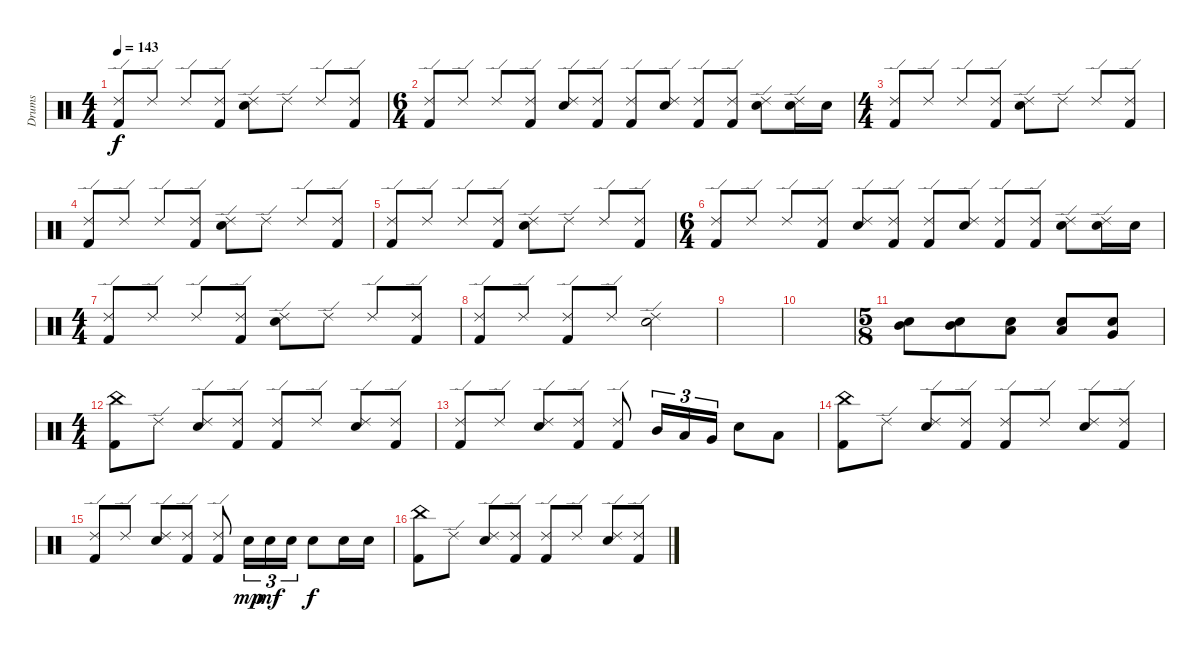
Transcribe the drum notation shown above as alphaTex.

\track ("Drums" "Drums") {instrument percussion}
\staff {score}
\articulation defaults
\ts (4 4)
\tempo 143
\clef neutral
\ks c
("Ride (edge) 2" "Kick (hit) 2").8{dy f} "Ride (edge) 2".8 "Ride (edge) 2".8 ("Ride (edge) 2" "Kick (hit) 2").8 ("Ride (edge) 2" "Electric Snare (hit)").8 "Ride (edge) 2".8 "Ride (edge) 2".8 ("Ride (edge) 2" "Kick (hit) 2").8 |
\ts (6 4)
("Ride (edge) 2" "Kick (hit) 2").8 "Ride (edge) 2".8 "Ride (edge) 2".8 ("Ride (edge) 2" "Kick (hit) 2").8 ("Ride (edge) 2" "Electric Snare (hit)").8 ("Ride (edge) 2" "Kick (hit) 2").8 ("Ride (edge) 2" "Kick (hit) 2").8 ("Ride (edge) 2" "Electric Snare (hit)").8 ("Ride (edge) 2" "Kick (hit) 2").8 ("Ride (edge) 2" "Kick (hit) 2").8 ("Ride (edge) 2" "Electric Snare (hit)").8 ("Ride (edge) 2" "Electric Snare (hit)").16 "Electric Snare (hit)".16 |
\ts (4 4)
("Ride (edge) 2" "Kick (hit) 2").8 "Ride (edge) 2".8 "Ride (edge) 2".8 ("Ride (edge) 2" "Kick (hit) 2").8 ("Ride (edge) 2" "Electric Snare (hit)").8 "Ride (edge) 2".8 "Ride (edge) 2".8 ("Ride (edge) 2" "Kick (hit) 2").8 |
("Ride (edge) 2" "Kick (hit) 2").8 "Ride (edge) 2".8 "Ride (edge) 2".8 ("Ride (edge) 2" "Kick (hit) 2").8 ("Ride (edge) 2" "Electric Snare (hit)").8 "Ride (edge) 2".8 "Ride (edge) 2".8 ("Ride (edge) 2" "Kick (hit) 2").8 |
("Ride (edge) 2" "Kick (hit) 2").8 "Ride (edge) 2".8 "Ride (edge) 2".8 ("Ride (edge) 2" "Kick (hit) 2").8 ("Ride (edge) 2" "Electric Snare (hit)").8 "Ride (edge) 2".8 "Ride (edge) 2".8 ("Ride (edge) 2" "Kick (hit) 2").8 |
\ts (6 4)
("Ride (edge) 2" "Kick (hit) 2").8 "Ride (edge) 2".8 "Ride (edge) 2".8 ("Ride (edge) 2" "Kick (hit) 2").8 ("Ride (edge) 2" "Electric Snare (hit)").8 ("Ride (edge) 2" "Kick (hit) 2").8 ("Ride (edge) 2" "Kick (hit) 2").8 ("Ride (edge) 2" "Electric Snare (hit)").8 ("Ride (edge) 2" "Kick (hit) 2").8 ("Ride (edge) 2" "Kick (hit) 2").8 ("Ride (edge) 2" "Electric Snare (hit)").8 ("Ride (edge) 2" "Electric Snare (hit)").16 "Electric Snare (hit)".16 |
\ts (4 4)
("Ride (edge) 2" "Kick (hit) 2").8 "Ride (edge) 2".8 "Ride (edge) 2".8 ("Ride (edge) 2" "Kick (hit) 2").8 ("Ride (edge) 2" "Electric Snare (hit)").8 "Ride (edge) 2".8 "Ride (edge) 2".8 ("Ride (edge) 2" "Kick (hit) 2").8 |
("Ride (edge) 2" "Kick (hit) 2").8 "Ride (edge) 2".8 ("Ride (edge) 2" "Kick (hit) 2").8 "Ride (edge) 2".8 ("Ride (edge) 2" "Electric Snare (hit)").2 |
|
|
\ts (5 8)
("Mid Tom (hit)" "Electric Snare (hit)").8{volume 16} ("Mid Tom (hit)" "Electric Snare (hit)").8 ("Low Tom (hit)" "Electric Snare (hit)").8 ("Low Tom (hit)" "Electric Snare (hit)").8 ("Very Low Tom (hit)" "Electric Snare (hit)").8 |
\ts (4 4)
("China (hit)" "Kick (hit) 2").8 "Ride (edge) 2".8 ("Ride (edge) 2" "Electric Snare (hit)").8 ("Ride (edge) 2" "Kick (hit) 2").8 ("Ride (edge) 2" "Kick (hit) 2").8 "Ride (edge) 2".8 ("Ride (edge) 2" "Electric Snare (hit)").8 ("Ride (edge) 2" "Kick (hit) 2").8 |
("Ride (edge) 2" "Kick (hit) 2").8 "Ride (edge) 2".8 ("Ride (edge) 2" "Electric Snare (hit)").8 ("Ride (edge) 2" "Kick (hit) 2").8 ("Ride (edge) 2" "Kick (hit) 2").8 "Mid Tom (hit)".16{tu (3 2)} "Low Tom (hit)".16{tu (3 2)} "Very Low Tom (hit)".16{tu (3 2)} "Electric Snare (hit)".8 "Low Tom (hit)".8 |
("China (hit)" "Kick (hit) 2").8 "Ride (edge) 2".8 ("Ride (edge) 2" "Electric Snare (hit)").8 ("Ride (edge) 2" "Kick (hit) 2").8 ("Ride (edge) 2" "Kick (hit) 2").8 "Ride (edge) 2".8 ("Ride (edge) 2" "Electric Snare (hit)").8 ("Ride (edge) 2" "Kick (hit) 2").8 |
("Ride (edge) 2" "Kick (hit) 2").8 "Ride (edge) 2".8 ("Ride (edge) 2" "Electric Snare (hit)").8 ("Ride (edge) 2" "Kick (hit) 2").8 ("Ride (edge) 2" "Kick (hit) 2").8 "Electric Snare (hit)".16{tu (3 2) dy mp} "Electric Snare (hit)".16{tu (3 2) dy mf} "Electric Snare (hit)".16{tu (3 2)} "Electric Snare (hit)".8{dy f} "Electric Snare (hit)".16 "Electric Snare (hit)".16 |
("China (hit)" "Kick (hit) 2").8 "Ride (edge) 2".8 ("Ride (edge) 2" "Electric Snare (hit)").8 ("Ride (edge) 2" "Kick (hit) 2").8 ("Ride (edge) 2" "Kick (hit) 2").8 "Ride (edge) 2".8 ("Ride (edge) 2" "Electric Snare (hit)").8 ("Ride (edge) 2" "Kick (hit) 2").8
